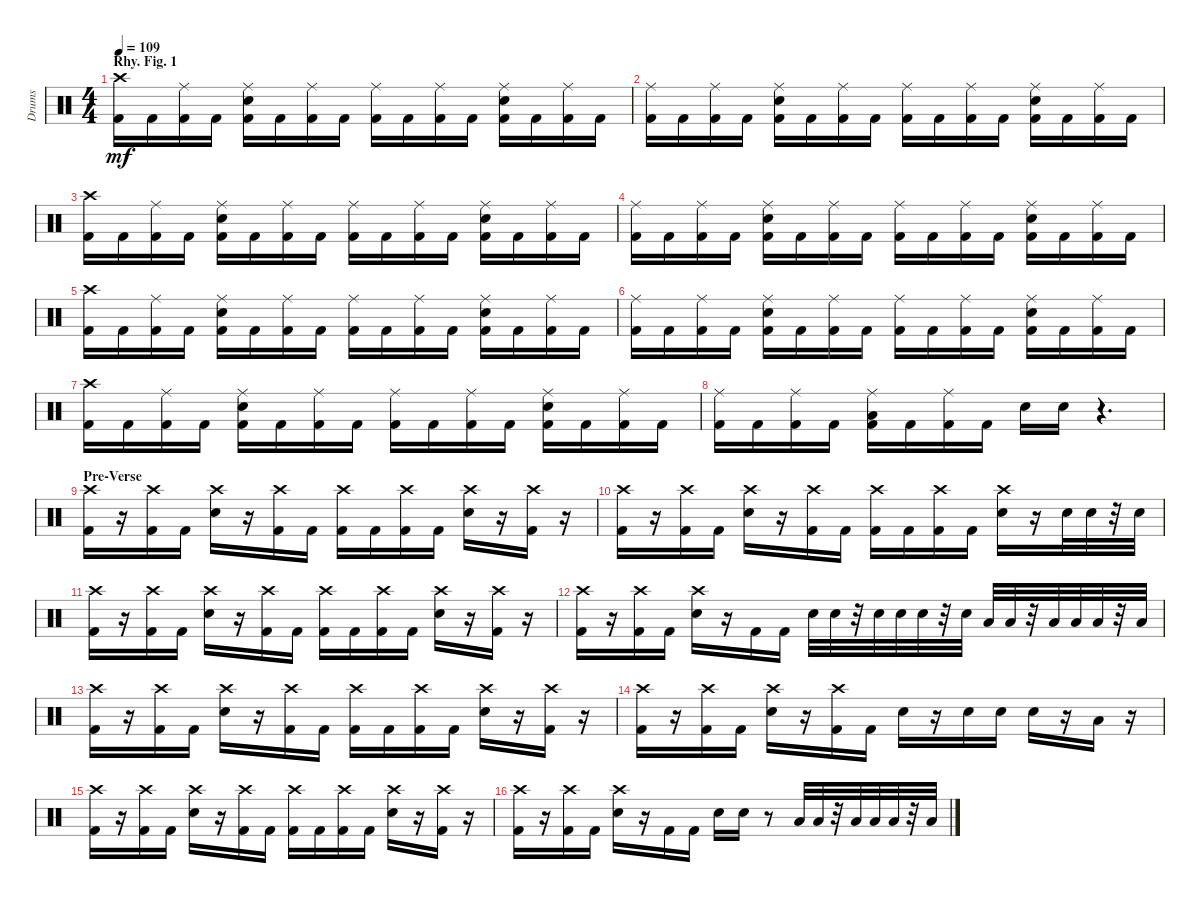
\track ("Drums" "Drums") {instrument percussion}
\staff {score}
\articulation defaults
\ts (4 4)
\section ("" "Rhy. Fig. 1")
\tempo 109
\clef neutral
\ks c
("Kick (hit) 2" "Crash high (hit)").16{dy mf} "Kick (hit) 2".16 ("Kick (hit) 2" "Ride (middle)").16 "Kick (hit) 2".16 ("Kick (hit) 2" "Snare (hit) 2" "Ride (middle)").16 "Kick (hit) 2".16 ("Kick (hit) 2" "Ride (middle)").16 "Kick (hit) 2".16 ("Kick (hit) 2" "Ride (middle)").16 "Kick (hit) 2".16 ("Kick (hit) 2" "Ride (middle)").16 "Kick (hit) 2".16 ("Kick (hit) 2" "Snare (hit) 2" "Ride (middle)").16 "Kick (hit) 2".16 ("Kick (hit) 2" "Ride (middle)").16 "Kick (hit) 2".16 |
("Ride (middle)" "Kick (hit) 2").16 "Kick (hit) 2".16 ("Ride (middle)" "Kick (hit) 2").16 "Kick (hit) 2".16 ("Ride (middle)" "Kick (hit) 2" "Snare (hit) 2").16 "Kick (hit) 2".16 ("Ride (middle)" "Kick (hit) 2").16 "Kick (hit) 2".16 ("Ride (middle)" "Kick (hit) 2").16 "Kick (hit) 2".16 ("Ride (middle)" "Kick (hit) 2").16 "Kick (hit) 2".16 ("Kick (hit) 2" "Snare (hit) 2" "Ride (middle)").16 "Kick (hit) 2".16 ("Kick (hit) 2" "Ride (middle)").16 "Kick (hit) 2".16 |
("Kick (hit) 2" "Crash high (hit)").16 "Kick (hit) 2".16 ("Kick (hit) 2" "Ride (middle)").16 "Kick (hit) 2".16 ("Kick (hit) 2" "Snare (hit) 2" "Ride (middle)").16 "Kick (hit) 2".16 ("Kick (hit) 2" "Ride (middle)").16 "Kick (hit) 2".16 ("Kick (hit) 2" "Ride (middle)").16 "Kick (hit) 2".16 ("Kick (hit) 2" "Ride (middle)").16 "Kick (hit) 2".16 ("Kick (hit) 2" "Snare (hit) 2" "Ride (middle)").16 "Kick (hit) 2".16 ("Kick (hit) 2" "Ride (middle)").16 "Kick (hit) 2".16 |
("Ride (middle)" "Kick (hit) 2").16 "Kick (hit) 2".16 ("Ride (middle)" "Kick (hit) 2").16 "Kick (hit) 2".16 ("Ride (middle)" "Kick (hit) 2" "Snare (hit) 2").16 "Kick (hit) 2".16 ("Ride (middle)" "Kick (hit) 2").16 "Kick (hit) 2".16 ("Ride (middle)" "Kick (hit) 2").16 "Kick (hit) 2".16 ("Ride (middle)" "Kick (hit) 2").16 "Kick (hit) 2".16 ("Kick (hit) 2" "Snare (hit) 2" "Ride (middle)").16 "Kick (hit) 2".16 ("Kick (hit) 2" "Ride (middle)").16 "Kick (hit) 2".16 |
("Kick (hit) 2" "Crash high (hit)").16 "Kick (hit) 2".16 ("Kick (hit) 2" "Ride (middle)").16 "Kick (hit) 2".16 ("Kick (hit) 2" "Snare (hit) 2" "Ride (middle)").16 "Kick (hit) 2".16 ("Kick (hit) 2" "Ride (middle)").16 "Kick (hit) 2".16 ("Kick (hit) 2" "Ride (middle)").16 "Kick (hit) 2".16 ("Kick (hit) 2" "Ride (middle)").16 "Kick (hit) 2".16 ("Kick (hit) 2" "Snare (hit) 2" "Ride (middle)").16 "Kick (hit) 2".16 ("Kick (hit) 2" "Ride (middle)").16 "Kick (hit) 2".16 |
("Ride (middle)" "Kick (hit) 2").16 "Kick (hit) 2".16 ("Ride (middle)" "Kick (hit) 2").16 "Kick (hit) 2".16 ("Ride (middle)" "Kick (hit) 2" "Snare (hit) 2").16 "Kick (hit) 2".16 ("Ride (middle)" "Kick (hit) 2").16 "Kick (hit) 2".16 ("Ride (middle)" "Kick (hit) 2").16 "Kick (hit) 2".16 ("Ride (middle)" "Kick (hit) 2").16 "Kick (hit) 2".16 ("Kick (hit) 2" "Snare (hit) 2" "Ride (middle)").16 "Kick (hit) 2".16 ("Kick (hit) 2" "Ride (middle)").16 "Kick (hit) 2".16 |
("Kick (hit) 2" "Crash high (hit)").16 "Kick (hit) 2".16 ("Kick (hit) 2" "Ride (middle)").16 "Kick (hit) 2".16 ("Kick (hit) 2" "Snare (hit) 2" "Ride (middle)").16 "Kick (hit) 2".16 ("Kick (hit) 2" "Ride (middle)").16 "Kick (hit) 2".16 ("Kick (hit) 2" "Ride (middle)").16 "Kick (hit) 2".16 ("Kick (hit) 2" "Ride (middle)").16 "Kick (hit) 2".16 ("Kick (hit) 2" "Snare (hit) 2" "Ride (middle)").16 "Kick (hit) 2".16 ("Kick (hit) 2" "Ride (middle)").16 "Kick (hit) 2".16 |
("Kick (hit) 2" "Ride (middle)").16 "Kick (hit) 2".16 ("Kick (hit) 2" "Ride (middle)").16 "Kick (hit) 2".16 ("Low Floor Tom (hit)" "Kick (hit) 2" "Ride (middle)").16 "Kick (hit) 2".16 ("Kick (hit) 2" "Ride (middle)").16 "Kick (hit) 2".16 "Snare (hit) 2".16 "Snare (hit) 2".16 r.4{d} |
\section ("" "Pre-Verse")
("Crash high (hit)" "Kick (hit) 2").16 r.16 ("Kick (hit) 2" "Crash high (hit)").16 "Kick (hit) 2".16 ("Crash high (hit)" "Snare (hit) 2").16 r.16 ("Kick (hit) 2" "Crash high (hit)").16 "Kick (hit) 2".16 ("Crash high (hit)" "Kick (hit) 2").16 "Kick (hit) 2".16 ("Kick (hit) 2" "Crash high (hit)").16 "Kick (hit) 2".16 ("Crash high (hit)" "Snare (hit) 2").16 r.16 ("Kick (hit) 2" "Crash high (hit)").16 r.16 |
("Crash high (hit)" "Kick (hit) 2").16 r.16 ("Kick (hit) 2" "Crash high (hit)").16 "Kick (hit) 2".16 ("Crash high (hit)" "Snare (hit) 2").16 r.16 ("Kick (hit) 2" "Crash high (hit)").16 "Kick (hit) 2".16 ("Crash high (hit)" "Kick (hit) 2").16 "Kick (hit) 2".16 ("Kick (hit) 2" "Crash high (hit)").16 "Kick (hit) 2".16 ("Snare (hit) 2" "Crash high (hit)").16 r.16 "Snare (hit) 2".32 "Snare (hit) 2".32 r.32 "Snare (hit) 2".32 |
("Crash high (hit)" "Kick (hit) 2").16 r.16 ("Kick (hit) 2" "Crash high (hit)").16 "Kick (hit) 2".16 ("Crash high (hit)" "Snare (hit) 2").16 r.16 ("Kick (hit) 2" "Crash high (hit)").16 "Kick (hit) 2".16 ("Crash high (hit)" "Kick (hit) 2").16 "Kick (hit) 2".16 ("Kick (hit) 2" "Crash high (hit)").16 "Kick (hit) 2".16 ("Crash high (hit)" "Snare (hit) 2").16 r.16 ("Kick (hit) 2" "Crash high (hit)").16 r.16 |
("Crash high (hit)" "Kick (hit) 2").16 r.16 ("Kick (hit) 2" "Crash high (hit)").16 "Kick (hit) 2".16 ("Snare (hit) 2" "Crash high (hit)").16 r.16 "Kick (hit) 2".16 "Kick (hit) 2".16 "Snare (hit) 2".32 "Snare (hit) 2".32 r.32 "Snare (hit) 2".32 "Snare (hit) 2".32 "Snare (hit) 2".32 r.32 "Snare (hit) 2".32 "Low Tom (hit)".32 "Low Tom (hit)".32 r.32 "Low Tom (hit)".32 "Low Floor Tom (hit)".32 "Low Floor Tom (hit)".32 r.32 "Low Floor Tom (hit)".32 |
("Crash high (hit)" "Kick (hit) 2").16 r.16 ("Kick (hit) 2" "Crash high (hit)").16 "Kick (hit) 2".16 ("Crash high (hit)" "Snare (hit) 2").16 r.16 ("Kick (hit) 2" "Crash high (hit)").16 "Kick (hit) 2".16 ("Crash high (hit)" "Kick (hit) 2").16 "Kick (hit) 2".16 ("Kick (hit) 2" "Crash high (hit)").16 "Kick (hit) 2".16 ("Crash high (hit)" "Snare (hit) 2").16 r.16 ("Kick (hit) 2" "Crash high (hit)").16 r.16 |
("Crash high (hit)" "Kick (hit) 2").16 r.16 ("Kick (hit) 2" "Crash high (hit)").16 "Kick (hit) 2".16 ("Crash high (hit)" "Snare (hit) 2").16 r.16 ("Kick (hit) 2" "Crash high (hit)").16 "Kick (hit) 2".16 "Snare (hit) 2".16 r.16 "Snare (hit) 2".16 "Snare (hit) 2".16 "Snare (hit) 2".16 r.16 "Low Floor Tom (hit)".16 r.16 |
("Crash high (hit)" "Kick (hit) 2").16 r.16 ("Kick (hit) 2" "Crash high (hit)").16 "Kick (hit) 2".16 ("Crash high (hit)" "Snare (hit) 2").16 r.16 ("Kick (hit) 2" "Crash high (hit)").16 "Kick (hit) 2".16 ("Crash high (hit)" "Kick (hit) 2").16 "Kick (hit) 2".16 ("Kick (hit) 2" "Crash high (hit)").16 "Kick (hit) 2".16 ("Crash high (hit)" "Snare (hit) 2").16 r.16 ("Kick (hit) 2" "Crash high (hit)").16 r.16 |
("Crash high (hit)" "Kick (hit) 2").16 r.16 ("Kick (hit) 2" "Crash high (hit)").16 "Kick (hit) 2".16 ("Crash high (hit)" "Snare (hit) 2").16 r.16 "Kick (hit) 2".16 "Kick (hit) 2".16 "Snare (hit) 2".16 "Snare (hit) 2".16 r.8 "Low Tom (hit)".32 "Low Tom (hit)".32 r.32 "Low Tom (hit)".32 "Low Floor Tom (hit)".32 "Low Floor Tom (hit)".32 r.32 "Low Floor Tom (hit)".32
